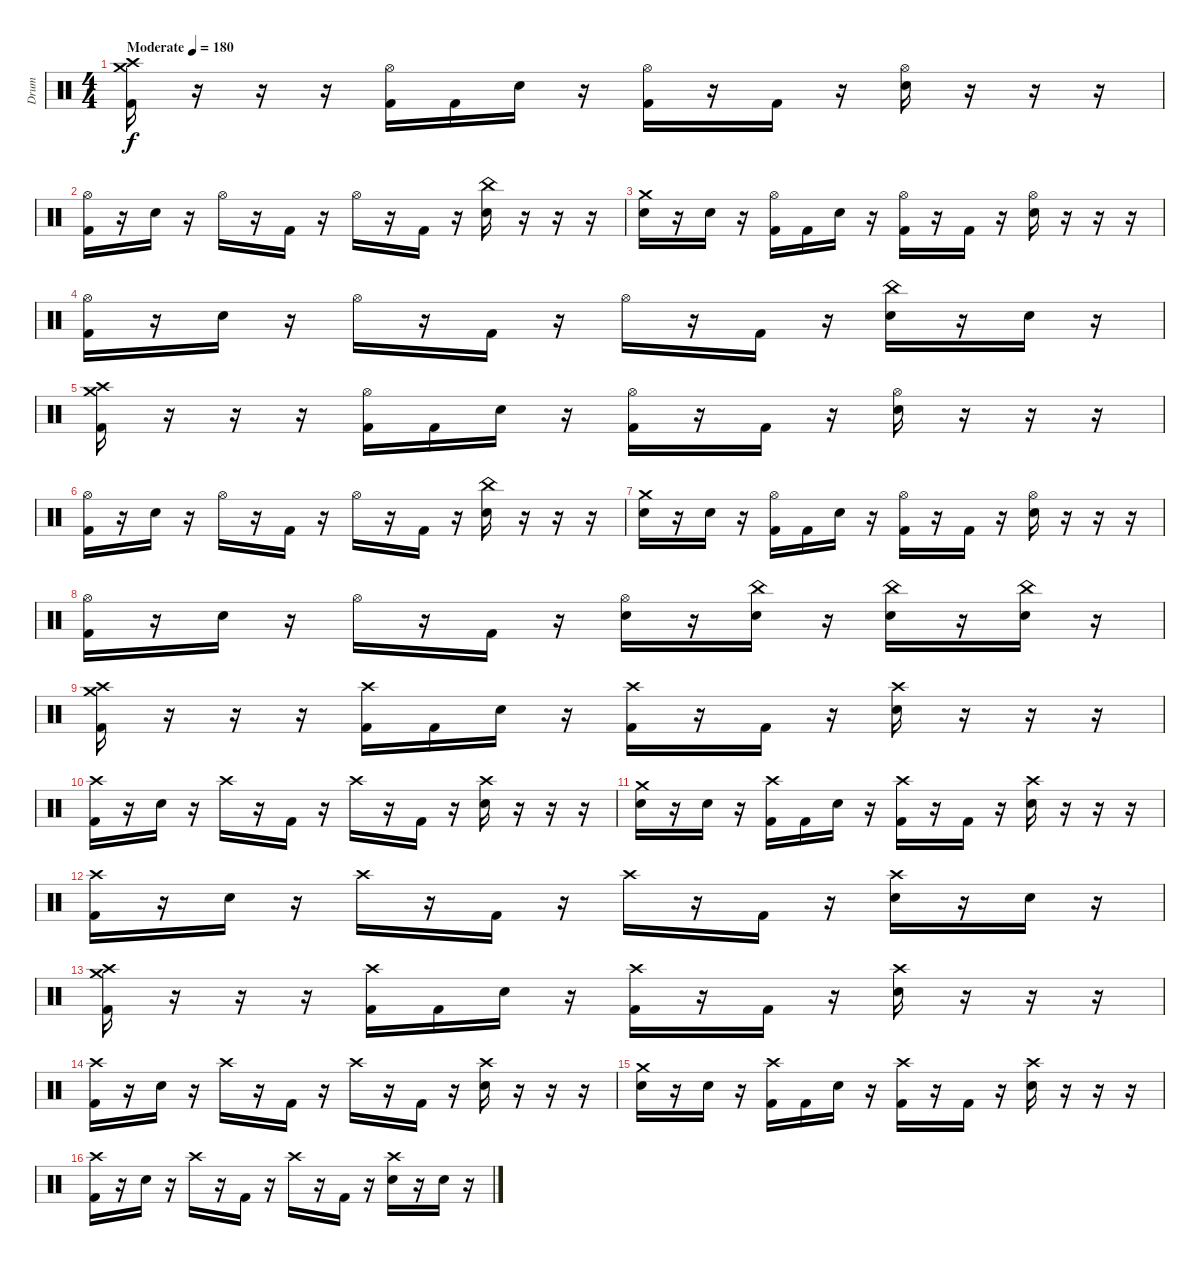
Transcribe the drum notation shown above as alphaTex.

\track ("Drum" "Drum") {instrument percussion}
\staff {score}
\articulation defaults
\ts (4 4)
\tempo (180 "Moderate")
\clef neutral
\ks c
("Crash medium (hit)" "Crash high (hit)" "Kick (hit) 2").16{dy f} r.16 r.16 r.16 ("Hi-Hat (open)" "Kick (hit) 2").16 "Kick (hit) 2".16 "Electric Snare (hit)".16 r.16 ("Hi-Hat (open)" "Kick (hit) 2").16 r.16 "Kick (hit) 2".16 r.16 ("Hi-Hat (open)" "Electric Snare (hit)").16 r.16 r.16 r.16 |
("Hi-Hat (open)" "Kick (hit) 2").16 r.16 "Electric Snare (hit)".16 r.16 "Hi-Hat (open)".16 r.16 "Kick (hit) 2".16 r.16 "Hi-Hat (open)".16 r.16 "Kick (hit) 2".16 r.16 ("China (hit)" "Electric Snare (hit)").16 r.16 r.16 r.16 |
("Crash medium (hit)" "Electric Snare (hit)").16 r.16 "Electric Snare (hit)".16 r.16 ("Hi-Hat (open)" "Kick (hit) 2").16 "Kick (hit) 2".16 "Electric Snare (hit)".16 r.16 ("Hi-Hat (open)" "Kick (hit) 2").16 r.16 "Kick (hit) 2".16 r.16 ("Hi-Hat (open)" "Electric Snare (hit)").16 r.16 r.16 r.16 |
("Hi-Hat (open)" "Kick (hit) 2").16 r.16 "Electric Snare (hit)".16 r.16 "Hi-Hat (open)".16 r.16 "Kick (hit) 2".16 r.16 "Hi-Hat (open)".16 r.16 "Kick (hit) 2".16 r.16 ("China (hit)" "Electric Snare (hit)").16 r.16 "Electric Snare (hit)".16 r.16 |
("Crash medium (hit)" "Crash high (hit)" "Kick (hit) 2").16 r.16 r.16 r.16 ("Hi-Hat (open)" "Kick (hit) 2").16 "Kick (hit) 2".16 "Electric Snare (hit)".16 r.16 ("Hi-Hat (open)" "Kick (hit) 2").16 r.16 "Kick (hit) 2".16 r.16 ("Hi-Hat (open)" "Electric Snare (hit)").16 r.16 r.16 r.16 |
("Hi-Hat (open)" "Kick (hit) 2").16 r.16 "Electric Snare (hit)".16 r.16 "Hi-Hat (open)".16 r.16 "Kick (hit) 2".16 r.16 "Hi-Hat (open)".16 r.16 "Kick (hit) 2".16 r.16 ("China (hit)" "Electric Snare (hit)").16 r.16 r.16 r.16 |
("Crash medium (hit)" "Electric Snare (hit)").16 r.16 "Electric Snare (hit)".16 r.16 ("Hi-Hat (open)" "Kick (hit) 2").16 "Kick (hit) 2".16 "Electric Snare (hit)".16 r.16 ("Hi-Hat (open)" "Kick (hit) 2").16 r.16 "Kick (hit) 2".16 r.16 ("Hi-Hat (open)" "Electric Snare (hit)").16 r.16 r.16 r.16 |
("Hi-Hat (open)" "Kick (hit) 2").16 r.16 "Electric Snare (hit)".16 r.16 "Hi-Hat (open)".16 r.16 "Kick (hit) 2".16 r.16 ("Hi-Hat (open)" "Electric Snare (hit)").16 r.16 ("China (hit)" "Electric Snare (hit)").16 r.16 ("China (hit)" "Electric Snare (hit)").16 r.16 ("China (hit)" "Electric Snare (hit)").16 r.16 |
("Crash medium (hit)" "Crash high (hit)" "Kick (hit) 2").16 r.16 r.16 r.16 ("Crash high (hit)" "Kick (hit) 2").16 "Kick (hit) 2".16 "Electric Snare (hit)".16 r.16 ("Crash high (hit)" "Kick (hit) 2").16 r.16 "Kick (hit) 2".16 r.16 ("Crash high (hit)" "Electric Snare (hit)").16 r.16 r.16 r.16 |
("Crash high (hit)" "Kick (hit) 2").16 r.16 "Electric Snare (hit)".16 r.16 "Crash high (hit)".16 r.16 "Kick (hit) 2".16 r.16 "Crash high (hit)".16 r.16 "Kick (hit) 2".16 r.16 ("Crash high (hit)" "Electric Snare (hit)").16 r.16 r.16 r.16 |
("Crash medium (hit)" "Electric Snare (hit)").16 r.16 "Electric Snare (hit)".16 r.16 ("Crash high (hit)" "Kick (hit) 2").16 "Kick (hit) 2".16 "Electric Snare (hit)".16 r.16 ("Crash high (hit)" "Kick (hit) 2").16 r.16 "Kick (hit) 2".16 r.16 ("Crash high (hit)" "Electric Snare (hit)").16 r.16 r.16 r.16 |
("Crash high (hit)" "Kick (hit) 2").16 r.16 "Electric Snare (hit)".16 r.16 "Crash high (hit)".16 r.16 "Kick (hit) 2".16 r.16 "Crash high (hit)".16 r.16 "Kick (hit) 2".16 r.16 ("Crash high (hit)" "Electric Snare (hit)").16 r.16 "Electric Snare (hit)".16 r.16 |
("Crash medium (hit)" "Crash high (hit)" "Kick (hit) 2").16 r.16 r.16 r.16 ("Crash high (hit)" "Kick (hit) 2").16 "Kick (hit) 2".16 "Electric Snare (hit)".16 r.16 ("Crash high (hit)" "Kick (hit) 2").16 r.16 "Kick (hit) 2".16 r.16 ("Crash high (hit)" "Electric Snare (hit)").16 r.16 r.16 r.16 |
("Crash high (hit)" "Kick (hit) 2").16 r.16 "Electric Snare (hit)".16 r.16 "Crash high (hit)".16 r.16 "Kick (hit) 2".16 r.16 "Crash high (hit)".16 r.16 "Kick (hit) 2".16 r.16 ("Crash high (hit)" "Electric Snare (hit)").16 r.16 r.16 r.16 |
("Crash medium (hit)" "Electric Snare (hit)").16 r.16 "Electric Snare (hit)".16 r.16 ("Crash high (hit)" "Kick (hit) 2").16 "Kick (hit) 2".16 "Electric Snare (hit)".16 r.16 ("Crash high (hit)" "Kick (hit) 2").16 r.16 "Kick (hit) 2".16 r.16 ("Crash high (hit)" "Electric Snare (hit)").16 r.16 r.16 r.16 |
("Crash high (hit)" "Kick (hit) 2").16 r.16 "Electric Snare (hit)".16 r.16 "Crash high (hit)".16 r.16 "Kick (hit) 2".16 r.16 "Crash high (hit)".16 r.16 "Kick (hit) 2".16 r.16 ("Crash high (hit)" "Electric Snare (hit)").16 r.16 "Electric Snare (hit)".16 r.16
